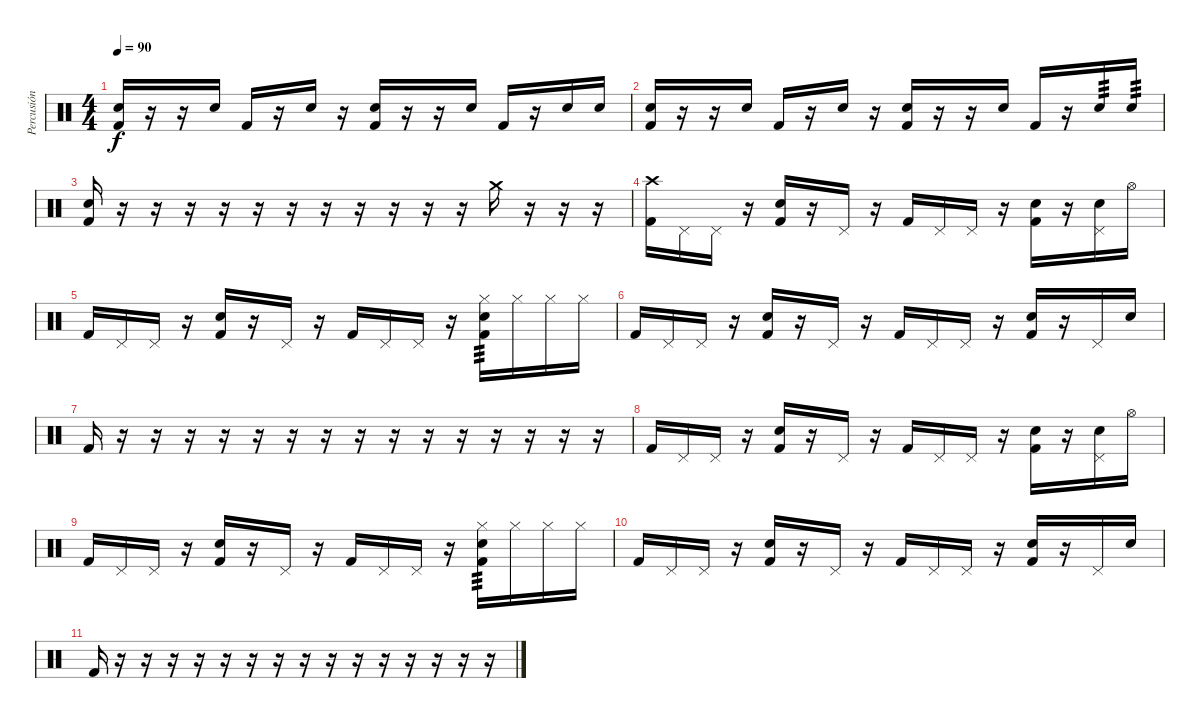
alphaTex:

\track ("Percusión" "Percusión") {instrument percussion}
\staff {score}
\articulation defaults
\ts (4 4)
\tempo 90
\clef neutral
\ks c
("Electric Snare (hit)" "Kick (hit) 2").16{dy f} r.16 r.16 "Electric Snare (hit)".16 "Kick (hit) 2".16 r.16 "Electric Snare (hit)".16 r.16 ("Electric Snare (hit)" "Kick (hit) 2").16 r.16 r.16 "Electric Snare (hit)".16 "Kick (hit) 2".16 r.16 "Electric Snare (hit)".16 "Electric Snare (hit)".16 |
("Electric Snare (hit)" "Kick (hit) 2").16 r.16 r.16 "Electric Snare (hit)".16 "Kick (hit) 2".16 r.16 "Electric Snare (hit)".16 r.16 ("Electric Snare (hit)" "Kick (hit) 2").16 r.16 r.16 "Electric Snare (hit)".16 "Kick (hit) 2".16 r.16 "Electric Snare (hit)".16{tp 3} "Electric Snare (hit)".16{tp 3} |
("Electric Snare (hit)" "Kick (hit) 2").16 r.16 r.16 r.16 r.16 r.16 r.16 r.16 r.16 r.16 r.16 r.16 "Crash medium (hit)".16 r.16 r.16 r.16 |
("Crash high (hit)" "Kick (hit) 2").16 "Pedal Hi-Hat (hit)".16 "Pedal Hi-Hat (hit)".16 r.16 ("Electric Snare (hit)" "Kick (hit) 2").16 r.16 "Pedal Hi-Hat (hit)".16 r.16 "Kick (hit) 2".16 "Pedal Hi-Hat (hit)".16 "Pedal Hi-Hat (hit)".16 r.16 ("Electric Snare (hit)" "Kick (hit) 2").16 r.16 ("Electric Snare (hit)" "Pedal Hi-Hat (hit)").16 "Hi-Hat (open)".16 |
"Kick (hit) 2".16 "Pedal Hi-Hat (hit)".16 "Pedal Hi-Hat (hit)".16 r.16 ("Electric Snare (hit)" "Kick (hit) 2").16 r.16 "Pedal Hi-Hat (hit)".16 r.16 "Kick (hit) 2".16 "Pedal Hi-Hat (hit)".16 "Pedal Hi-Hat (hit)".16 r.16 ("Electric Snare (hit)" "Hi-Hat (closed)" "Kick (hit) 2").16{tp 3} "Hi-Hat (closed)".16 "Hi-Hat (closed)".16 "Hi-Hat (closed)".16 |
"Kick (hit) 2".16 "Pedal Hi-Hat (hit)".16 "Pedal Hi-Hat (hit)".16 r.16 ("Electric Snare (hit)" "Kick (hit) 2").16 r.16 "Pedal Hi-Hat (hit)".16 r.16 "Kick (hit) 2".16 "Pedal Hi-Hat (hit)".16 "Pedal Hi-Hat (hit)".16 r.16 ("Electric Snare (hit)" "Kick (hit) 2").16 r.16 "Pedal Hi-Hat (hit)".16 "Electric Snare (hit)".16 |
"Kick (hit) 2".16 r.16 r.16 r.16 r.16 r.16 r.16 r.16 r.16 r.16 r.16 r.16 r.16 r.16 r.16 r.16 |
"Kick (hit) 2".16 "Pedal Hi-Hat (hit)".16 "Pedal Hi-Hat (hit)".16 r.16 ("Electric Snare (hit)" "Kick (hit) 2").16 r.16 "Pedal Hi-Hat (hit)".16 r.16 "Kick (hit) 2".16 "Pedal Hi-Hat (hit)".16 "Pedal Hi-Hat (hit)".16 r.16 ("Electric Snare (hit)" "Kick (hit) 2").16 r.16 ("Electric Snare (hit)" "Pedal Hi-Hat (hit)").16 "Hi-Hat (open)".16 |
"Kick (hit) 2".16 "Pedal Hi-Hat (hit)".16 "Pedal Hi-Hat (hit)".16 r.16 ("Electric Snare (hit)" "Kick (hit) 2").16 r.16 "Pedal Hi-Hat (hit)".16 r.16 "Kick (hit) 2".16 "Pedal Hi-Hat (hit)".16 "Pedal Hi-Hat (hit)".16 r.16 ("Electric Snare (hit)" "Hi-Hat (closed)" "Kick (hit) 2").16{tp 3} "Hi-Hat (closed)".16 "Hi-Hat (closed)".16 "Hi-Hat (closed)".16 |
"Kick (hit) 2".16 "Pedal Hi-Hat (hit)".16 "Pedal Hi-Hat (hit)".16 r.16 ("Electric Snare (hit)" "Kick (hit) 2").16 r.16 "Pedal Hi-Hat (hit)".16 r.16 "Kick (hit) 2".16 "Pedal Hi-Hat (hit)".16 "Pedal Hi-Hat (hit)".16 r.16 ("Electric Snare (hit)" "Kick (hit) 2").16 r.16 "Pedal Hi-Hat (hit)".16 "Electric Snare (hit)".16 |
"Kick (hit) 2".16 r.16 r.16 r.16 r.16 r.16 r.16 r.16 r.16 r.16 r.16 r.16 r.16 r.16 r.16 r.16
